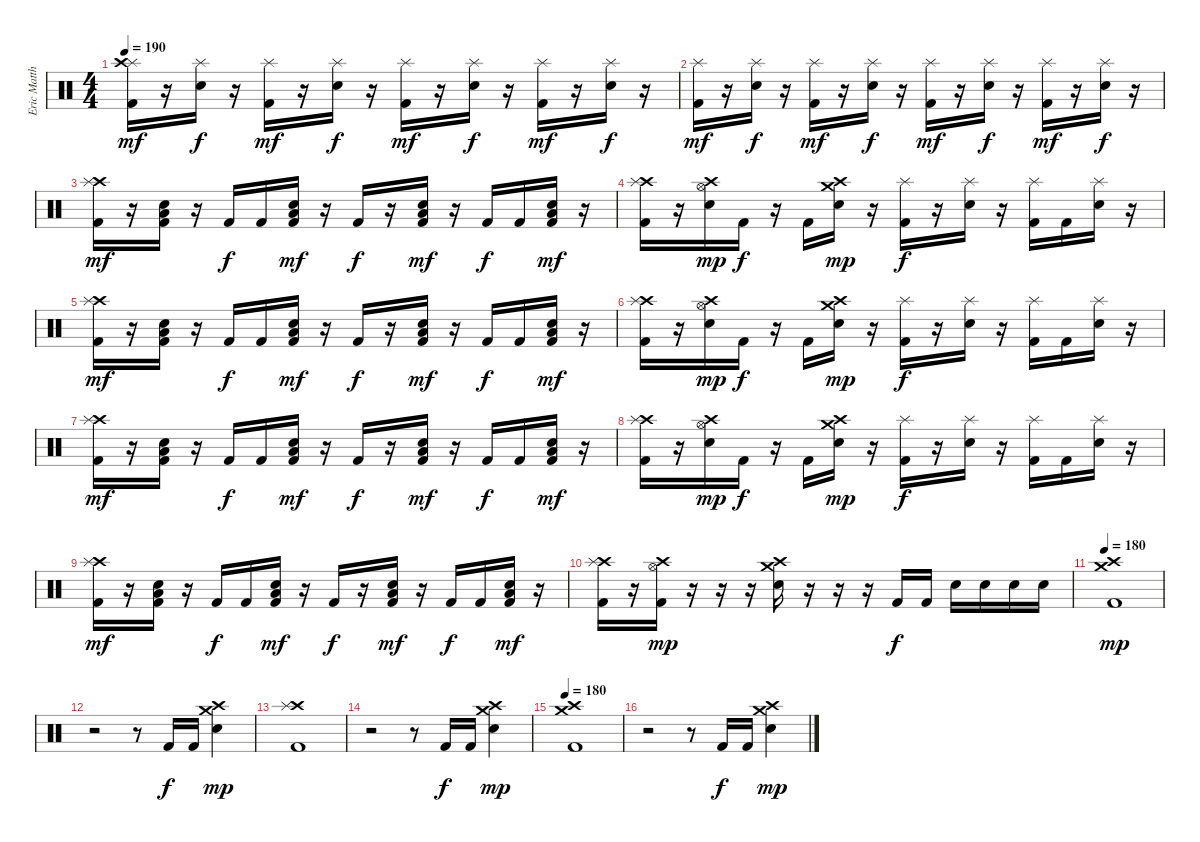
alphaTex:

\track ("Eric Matthews (drums)" "Eric Matth") {instrument percussion}
\staff {score}
\articulation defaults
\ts (4 4)
\tempo 190
\clef neutral
\ks c
("Splash (hit)" "Crash high (hit)" "Kick (hit) 2").16{dy mf} r.16 ("Splash (hit)" "Snare (hit) 2").16{dy f} r.16 ("Splash (hit)" "Kick (hit) 2").16{dy mf} r.16 ("Splash (hit)" "Snare (hit) 2").16{dy f} r.16 ("Splash (hit)" "Kick (hit) 2").16{dy mf} r.16 ("Splash (hit)" "Snare (hit) 2").16{dy f} r.16 ("Splash (hit)" "Kick (hit) 2").16{dy mf} r.16 ("Splash (hit)" "Snare (hit) 2").16{dy f} r.16 |
("Splash (hit)" "Kick (hit) 2").16{dy mf} r.16 ("Splash (hit)" "Snare (hit) 2").16{dy f} r.16 ("Splash (hit)" "Kick (hit) 2").16{dy mf} r.16 ("Splash (hit)" "Snare (hit) 2").16{dy f} r.16 ("Splash (hit)" "Kick (hit) 2").16{dy mf} r.16 ("Splash (hit)" "Snare (hit) 2").16{dy f} r.16 ("Splash (hit)" "Kick (hit) 2").16{dy mf} r.16 ("Splash (hit)" "Snare (hit) 2").16{dy f} r.16 |
("Crash high (hit)" "Splash (hit)" "Kick (hit) 2").16{dy mf} r.16 ("Snare (hit) 2" "Low Tom (hit)" "Kick (hit) 2").16 r.16 "Kick (hit) 2".16{dy f} "Kick (hit) 2".16 ("Snare (hit) 2" "Low Tom (hit)" "Kick (hit) 2").16{dy mf} r.16 "Kick (hit) 2".16{dy f} r.16 ("Snare (hit) 2" "Low Tom (hit)" "Kick (hit) 2").16{dy mf} r.16 "Kick (hit) 2".16{dy f} "Kick (hit) 2".16 ("Snare (hit) 2" "Low Tom (hit)" "Kick (hit) 2").16{dy mf} r.16 |
("Crash high (hit)" "Splash (hit)" "Kick (hit) 2").16 r.16 ("Crash high (hit)" "Hi-Hat (open)" "Snare (hit) 2").16{dy mp} "Kick (hit) 2".16{dy f} r.16 "Kick (hit) 2".16 ("Crash high (hit)" "Crash medium (hit)" "Snare (hit) 2").16{dy mp} r.16 ("Splash (hit)" "Kick (hit) 2").16{dy f} r.16 ("Splash (hit)" "Snare (hit) 2").16 r.16 ("Splash (hit)" "Kick (hit) 2").16 "Kick (hit) 2".16 ("Splash (hit)" "Snare (hit) 2").16 r.16 |
("Crash high (hit)" "Splash (hit)" "Kick (hit) 2").16{dy mf} r.16 ("Snare (hit) 2" "Low Tom (hit)" "Kick (hit) 2").16 r.16 "Kick (hit) 2".16{dy f} "Kick (hit) 2".16 ("Snare (hit) 2" "Low Tom (hit)" "Kick (hit) 2").16{dy mf} r.16 "Kick (hit) 2".16{dy f} r.16 ("Snare (hit) 2" "Low Tom (hit)" "Kick (hit) 2").16{dy mf} r.16 "Kick (hit) 2".16{dy f} "Kick (hit) 2".16 ("Snare (hit) 2" "Low Tom (hit)" "Kick (hit) 2").16{dy mf} r.16 |
("Crash high (hit)" "Splash (hit)" "Kick (hit) 2").16 r.16 ("Crash high (hit)" "Hi-Hat (open)" "Snare (hit) 2").16{dy mp} "Kick (hit) 2".16{dy f} r.16 "Kick (hit) 2".16 ("Crash high (hit)" "Crash medium (hit)" "Snare (hit) 2").16{dy mp} r.16 ("Splash (hit)" "Kick (hit) 2").16{dy f} r.16 ("Splash (hit)" "Snare (hit) 2").16 r.16 ("Splash (hit)" "Kick (hit) 2").16 "Kick (hit) 2".16 ("Splash (hit)" "Snare (hit) 2").16 r.16 |
("Crash high (hit)" "Splash (hit)" "Kick (hit) 2").16{dy mf} r.16 ("Snare (hit) 2" "Low Tom (hit)" "Kick (hit) 2").16 r.16 "Kick (hit) 2".16{dy f} "Kick (hit) 2".16 ("Snare (hit) 2" "Low Tom (hit)" "Kick (hit) 2").16{dy mf} r.16 "Kick (hit) 2".16{dy f} r.16 ("Snare (hit) 2" "Low Tom (hit)" "Kick (hit) 2").16{dy mf} r.16 "Kick (hit) 2".16{dy f} "Kick (hit) 2".16 ("Snare (hit) 2" "Low Tom (hit)" "Kick (hit) 2").16{dy mf} r.16 |
("Crash high (hit)" "Splash (hit)" "Kick (hit) 2").16 r.16 ("Crash high (hit)" "Hi-Hat (open)" "Snare (hit) 2").16{dy mp} "Kick (hit) 2".16{dy f} r.16 "Kick (hit) 2".16 ("Crash high (hit)" "Crash medium (hit)" "Snare (hit) 2").16{dy mp} r.16 ("Splash (hit)" "Kick (hit) 2").16{dy f} r.16 ("Splash (hit)" "Snare (hit) 2").16 r.16 ("Splash (hit)" "Kick (hit) 2").16 "Kick (hit) 2".16 ("Splash (hit)" "Snare (hit) 2").16 r.16 |
("Crash high (hit)" "Splash (hit)" "Kick (hit) 2").16{dy mf} r.16 ("Snare (hit) 2" "Low Tom (hit)" "Kick (hit) 2").16 r.16 "Kick (hit) 2".16{dy f} "Kick (hit) 2".16 ("Snare (hit) 2" "Low Tom (hit)" "Kick (hit) 2").16{dy mf} r.16 "Kick (hit) 2".16{dy f} r.16 ("Snare (hit) 2" "Low Tom (hit)" "Kick (hit) 2").16{dy mf} r.16 "Kick (hit) 2".16{dy f} "Kick (hit) 2".16 ("Snare (hit) 2" "Low Tom (hit)" "Kick (hit) 2").16{dy mf} r.16 |
("Crash high (hit)" "Splash (hit)" "Kick (hit) 2").16 r.16 ("Crash high (hit)" "Hi-Hat (open)" "Kick (hit) 2").16{dy mp} r.16 r.16 r.16 ("Crash high (hit)" "Crash medium (hit)" "Snare (hit) 2").16 r.16 r.16 r.16 "Kick (hit) 2".16{dy f} "Kick (hit) 2".16 "Snare (hit) 2".16 "Snare (hit) 2".16 "Snare (hit) 2".16 "Snare (hit) 2".16 |
\tempo 180
("Crash high (hit)" "Crash medium (hit)" "Kick (hit) 2").1{dy mp} |
r.2 r.8 "Kick (hit) 2".16{dy f} "Kick (hit) 2".16 ("Crash high (hit)" "Crash medium (hit)" "Snare (hit) 2").4{dy mp} |
("Crash high (hit)" "Splash (hit)" "Kick (hit) 2").1 |
r.2 r.8 "Kick (hit) 2".16{dy f} "Kick (hit) 2".16 ("Crash high (hit)" "Crash medium (hit)" "Snare (hit) 2").4{dy mp} |
\tempo 180
("Crash high (hit)" "Crash medium (hit)" "Kick (hit) 2").1 |
r.2 r.8 "Kick (hit) 2".16{dy f} "Kick (hit) 2".16 ("Crash high (hit)" "Crash medium (hit)" "Snare (hit) 2").4{dy mp}
